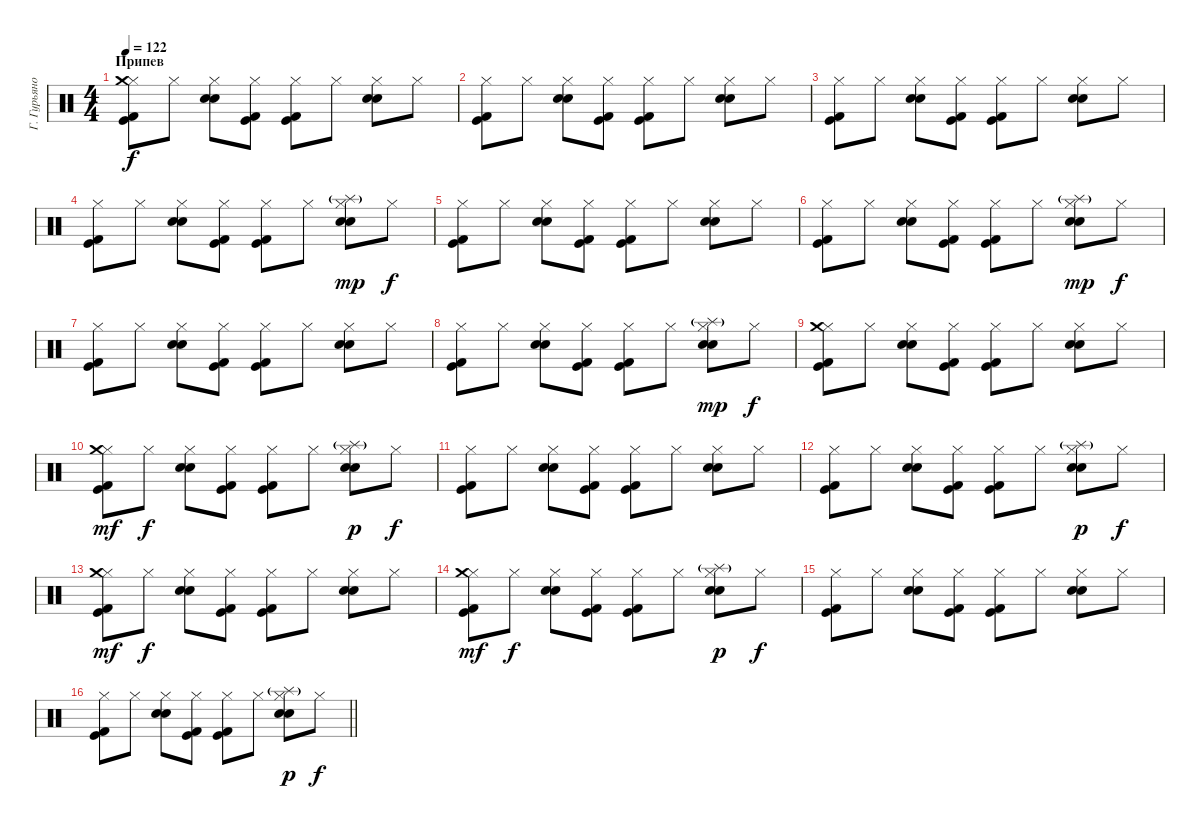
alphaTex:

\track ("Г. Гурьянов" "Г. Гурьяно") {instrument percussion}
\staff
\articulation defaults
\ts (4 4)
\section ("" "Припев")
\tempo 122
\clef neutral
\ks c
("Hi-Hat (closed)" "Crash medium (hit)" "Kick (hit)" "Kick (hit) 2").8{dy f} "Hi-Hat (closed)".8 ("Hi-Hat (closed)" "Electric Snare (hit)" "Snare (hit) 2").8 ("Hi-Hat (closed)" "Kick (hit)" "Kick (hit) 2").8 ("Hi-Hat (closed)" "Kick (hit)" "Kick (hit) 2").8 "Hi-Hat (closed)".8 ("Hi-Hat (closed)" "Electric Snare (hit)" "Snare (hit) 2").8 "Hi-Hat (closed)".8 |
("Hi-Hat (closed)" "Kick (hit)" "Kick (hit) 2").8 "Hi-Hat (closed)".8 ("Hi-Hat (closed)" "Electric Snare (hit)" "Snare (hit) 2").8 ("Hi-Hat (closed)" "Kick (hit)" "Kick (hit) 2").8 ("Hi-Hat (closed)" "Kick (hit)" "Kick (hit) 2").8 "Hi-Hat (closed)".8 ("Hi-Hat (closed)" "Electric Snare (hit)" "Snare (hit) 2").8 "Hi-Hat (closed)".8 |
("Hi-Hat (closed)" "Kick (hit)" "Kick (hit) 2").8 "Hi-Hat (closed)".8 ("Hi-Hat (closed)" "Electric Snare (hit)" "Snare (hit) 2").8 ("Hi-Hat (closed)" "Kick (hit)" "Kick (hit) 2").8 ("Hi-Hat (closed)" "Kick (hit)" "Kick (hit) 2").8 "Hi-Hat (closed)".8 ("Hi-Hat (closed)" "Electric Snare (hit)" "Snare (hit) 2").8 "Hi-Hat (closed)".8 |
("Hi-Hat (closed)" "Kick (hit)" "Kick (hit) 2").8 "Hi-Hat (closed)".8 ("Hi-Hat (closed)" "Electric Snare (hit)" "Snare (hit) 2").8 ("Hi-Hat (closed)" "Kick (hit)" "Kick (hit) 2").8 ("Hi-Hat (closed)" "Kick (hit)" "Kick (hit) 2").8 "Hi-Hat (closed)".8 ("Hi-Hat (closed)" "Electric Snare (hit)" "Snare (hit) 2" "Splash (hit)"{g}).8{dy mp} "Hi-Hat (closed)".8{dy f} |
("Hi-Hat (closed)" "Kick (hit)" "Kick (hit) 2").8 "Hi-Hat (closed)".8 ("Hi-Hat (closed)" "Electric Snare (hit)" "Snare (hit) 2").8 ("Hi-Hat (closed)" "Kick (hit)" "Kick (hit) 2").8 ("Hi-Hat (closed)" "Kick (hit)" "Kick (hit) 2").8 "Hi-Hat (closed)".8 ("Hi-Hat (closed)" "Electric Snare (hit)" "Snare (hit) 2").8 "Hi-Hat (closed)".8 |
("Hi-Hat (closed)" "Kick (hit)" "Kick (hit) 2").8 "Hi-Hat (closed)".8 ("Hi-Hat (closed)" "Electric Snare (hit)" "Snare (hit) 2").8 ("Hi-Hat (closed)" "Kick (hit)" "Kick (hit) 2").8 ("Hi-Hat (closed)" "Kick (hit)" "Kick (hit) 2").8 "Hi-Hat (closed)".8 ("Hi-Hat (closed)" "Electric Snare (hit)" "Snare (hit) 2" "Splash (hit)"{g}).8{dy mp} "Hi-Hat (closed)".8{dy f} |
("Hi-Hat (closed)" "Kick (hit)" "Kick (hit) 2").8 "Hi-Hat (closed)".8 ("Hi-Hat (closed)" "Electric Snare (hit)" "Snare (hit) 2").8 ("Hi-Hat (closed)" "Kick (hit)" "Kick (hit) 2").8 ("Hi-Hat (closed)" "Kick (hit)" "Kick (hit) 2").8 "Hi-Hat (closed)".8 ("Hi-Hat (closed)" "Electric Snare (hit)" "Snare (hit) 2").8 "Hi-Hat (closed)".8 |
("Hi-Hat (closed)" "Kick (hit)" "Kick (hit) 2").8 "Hi-Hat (closed)".8 ("Hi-Hat (closed)" "Electric Snare (hit)" "Snare (hit) 2").8 ("Hi-Hat (closed)" "Kick (hit)" "Kick (hit) 2").8 ("Hi-Hat (closed)" "Kick (hit)" "Kick (hit) 2").8 "Hi-Hat (closed)".8 ("Hi-Hat (closed)" "Electric Snare (hit)" "Snare (hit) 2" "Splash (hit)"{g}).8{dy mp} "Hi-Hat (closed)".8{dy f} |
("Hi-Hat (closed)" "Crash medium (hit)" "Kick (hit)" "Kick (hit) 2").8 "Hi-Hat (closed)".8 ("Hi-Hat (closed)" "Electric Snare (hit)" "Snare (hit) 2").8 ("Hi-Hat (closed)" "Kick (hit)" "Kick (hit) 2").8 ("Hi-Hat (closed)" "Kick (hit)" "Kick (hit) 2").8 "Hi-Hat (closed)".8 ("Hi-Hat (closed)" "Electric Snare (hit)" "Snare (hit) 2").8 "Hi-Hat (closed)".8 |
("Hi-Hat (closed)" "Crash medium (hit)" "Kick (hit)" "Kick (hit) 2").8{dy mf} "Hi-Hat (closed)".8{dy f} ("Hi-Hat (closed)" "Electric Snare (hit)" "Snare (hit) 2").8 ("Hi-Hat (closed)" "Kick (hit)" "Kick (hit) 2").8 ("Hi-Hat (closed)" "Kick (hit)" "Kick (hit) 2").8 "Hi-Hat (closed)".8 ("Hi-Hat (closed)" "Electric Snare (hit)" "Snare (hit) 2" "Splash (hit)"{g}).8{dy p} "Hi-Hat (closed)".8{dy f} |
("Hi-Hat (closed)" "Kick (hit)" "Kick (hit) 2").8 "Hi-Hat (closed)".8 ("Hi-Hat (closed)" "Electric Snare (hit)" "Snare (hit) 2").8 ("Hi-Hat (closed)" "Kick (hit)" "Kick (hit) 2").8 ("Hi-Hat (closed)" "Kick (hit)" "Kick (hit) 2").8 "Hi-Hat (closed)".8 ("Hi-Hat (closed)" "Electric Snare (hit)" "Snare (hit) 2").8 "Hi-Hat (closed)".8 |
("Hi-Hat (closed)" "Kick (hit)" "Kick (hit) 2").8 "Hi-Hat (closed)".8 ("Hi-Hat (closed)" "Electric Snare (hit)" "Snare (hit) 2").8 ("Hi-Hat (closed)" "Kick (hit)" "Kick (hit) 2").8 ("Hi-Hat (closed)" "Kick (hit)" "Kick (hit) 2").8 "Hi-Hat (closed)".8 ("Hi-Hat (closed)" "Electric Snare (hit)" "Snare (hit) 2" "Splash (hit)"{g}).8{dy p} "Hi-Hat (closed)".8{dy f} |
("Hi-Hat (closed)" "Crash medium (hit)" "Kick (hit)" "Kick (hit) 2").8{dy mf} "Hi-Hat (closed)".8{dy f} ("Hi-Hat (closed)" "Electric Snare (hit)" "Snare (hit) 2").8 ("Hi-Hat (closed)" "Kick (hit)" "Kick (hit) 2").8 ("Hi-Hat (closed)" "Kick (hit)" "Kick (hit) 2").8 "Hi-Hat (closed)".8 ("Hi-Hat (closed)" "Electric Snare (hit)" "Snare (hit) 2").8 "Hi-Hat (closed)".8 |
("Hi-Hat (closed)" "Crash medium (hit)" "Kick (hit)" "Kick (hit) 2").8{dy mf} "Hi-Hat (closed)".8{dy f} ("Hi-Hat (closed)" "Electric Snare (hit)" "Snare (hit) 2").8 ("Hi-Hat (closed)" "Kick (hit)" "Kick (hit) 2").8 ("Hi-Hat (closed)" "Kick (hit)" "Kick (hit) 2").8 "Hi-Hat (closed)".8 ("Hi-Hat (closed)" "Electric Snare (hit)" "Snare (hit) 2" "Splash (hit)"{g}).8{dy p} "Hi-Hat (closed)".8{dy f} |
("Hi-Hat (closed)" "Kick (hit)" "Kick (hit) 2").8 "Hi-Hat (closed)".8 ("Hi-Hat (closed)" "Electric Snare (hit)" "Snare (hit) 2").8 ("Hi-Hat (closed)" "Kick (hit)" "Kick (hit) 2").8 ("Hi-Hat (closed)" "Kick (hit)" "Kick (hit) 2").8 "Hi-Hat (closed)".8 ("Hi-Hat (closed)" "Electric Snare (hit)" "Snare (hit) 2").8 "Hi-Hat (closed)".8 |
\barLineRight lightlight
("Hi-Hat (closed)" "Kick (hit)" "Kick (hit) 2").8 "Hi-Hat (closed)".8 ("Hi-Hat (closed)" "Electric Snare (hit)" "Snare (hit) 2").8 ("Hi-Hat (closed)" "Kick (hit)" "Kick (hit) 2").8 ("Hi-Hat (closed)" "Kick (hit)" "Kick (hit) 2").8 "Hi-Hat (closed)".8 ("Hi-Hat (closed)" "Electric Snare (hit)" "Snare (hit) 2" "Splash (hit)"{g}).8{dy p} "Hi-Hat (closed)".8{dy f}
